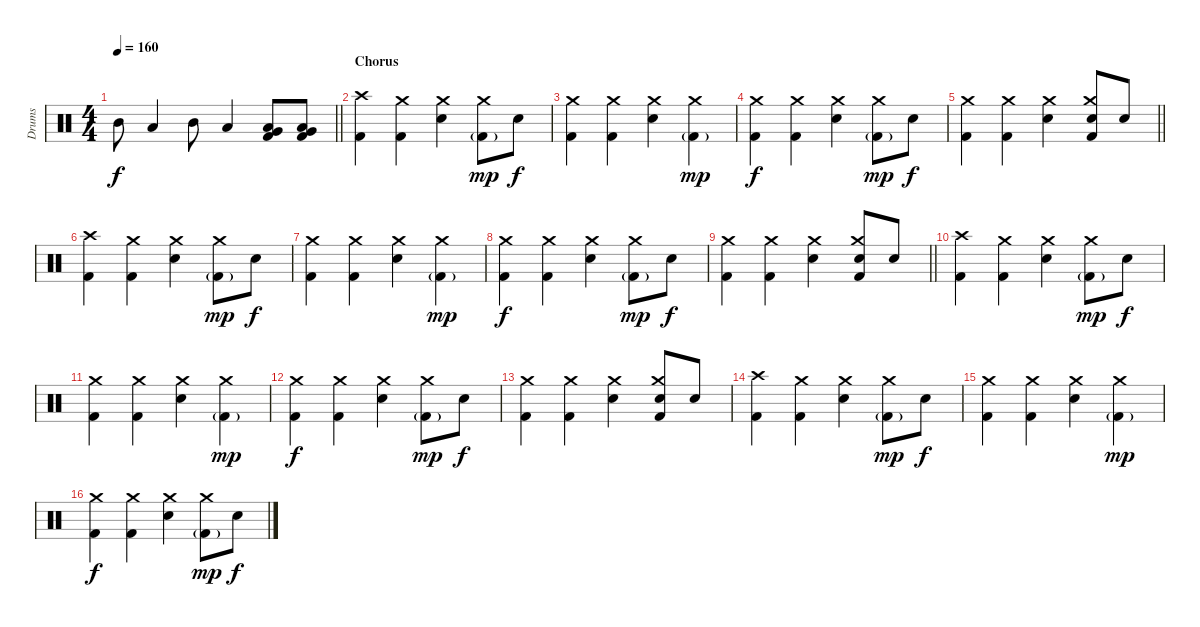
\track ("Drums" "Drums") {instrument percussion}
\staff {score}
\articulation defaults
\ts (4 4)
\tempo 160
\clef neutral
\barLineRight lightlight
\ks c "Mid Tom (hit)".8{dy f} "Low Tom (hit)".4 "Mid Tom (hit)".8 "Low Tom (hit)".4
("Very Low Tom (hit)" "Low Floor Tom (hit)" "Kick (hit) 2").8 ("Very Low Tom (hit)" "Low Floor Tom (hit)" "Kick (hit) 2").8 |
\section ("" "Chorus")
("Crash high (hit)" "Kick (hit) 2").4 ("Crash medium (hit)" "Kick (hit) 2").4 ("Crash medium (hit)" "Electric Snare (hit)").4 ("Crash medium (hit)" "Kick (hit) 2"{g}).8{dy mp} "Electric Snare (hit)".8{dy f} |
("Crash medium (hit)" "Kick (hit) 2").4 ("Crash medium (hit)" "Kick (hit) 2").4 ("Crash medium (hit)" "Electric Snare (hit)").4 ("Crash medium (hit)" "Kick (hit) 2"{g}).4{dy mp} |
("Crash medium (hit)" "Kick (hit) 2").4{dy f} ("Crash medium (hit)" "Kick (hit) 2").4 ("Crash medium (hit)" "Electric Snare (hit)").4 ("Crash medium (hit)" "Kick (hit) 2"{g}).8{dy mp} "Electric Snare (hit)".8{dy f} |
\barLineRight lightlight
("Crash medium (hit)" "Kick (hit) 2").4 ("Crash medium (hit)" "Kick (hit) 2").4 ("Crash medium (hit)" "Electric Snare (hit)").4 ("Crash medium (hit)" "Electric Snare (hit)" "Kick (hit) 2").8 "Electric Snare (hit)".8 |
("Crash high (hit)" "Kick (hit) 2").4 ("Crash medium (hit)" "Kick (hit) 2").4 ("Crash medium (hit)" "Electric Snare (hit)").4 ("Crash medium (hit)" "Kick (hit) 2"{g}).8{dy mp} "Electric Snare (hit)".8{dy f} |
("Crash medium (hit)" "Kick (hit) 2").4 ("Crash medium (hit)" "Kick (hit) 2").4 ("Crash medium (hit)" "Electric Snare (hit)").4 ("Crash medium (hit)" "Kick (hit) 2"{g}).4{dy mp} |
("Crash medium (hit)" "Kick (hit) 2").4{dy f} ("Crash medium (hit)" "Kick (hit) 2").4 ("Crash medium (hit)" "Electric Snare (hit)").4 ("Crash medium (hit)" "Kick (hit) 2"{g}).8{dy mp} "Electric Snare (hit)".8{dy f} |
\barLineRight lightlight
("Crash medium (hit)" "Kick (hit) 2").4 ("Crash medium (hit)" "Kick (hit) 2").4 ("Crash medium (hit)" "Electric Snare (hit)").4 ("Crash medium (hit)" "Electric Snare (hit)" "Kick (hit) 2").8 "Electric Snare (hit)".8 |
("Crash high (hit)" "Kick (hit) 2").4 ("Crash medium (hit)" "Kick (hit) 2").4 ("Crash medium (hit)" "Electric Snare (hit)").4 ("Crash medium (hit)" "Kick (hit) 2"{g}).8{dy mp} "Electric Snare (hit)".8{dy f} |
("Crash medium (hit)" "Kick (hit) 2").4 ("Crash medium (hit)" "Kick (hit) 2").4 ("Crash medium (hit)" "Electric Snare (hit)").4 ("Crash medium (hit)" "Kick (hit) 2"{g}).4{dy mp} |
("Crash medium (hit)" "Kick (hit) 2").4{dy f} ("Crash medium (hit)" "Kick (hit) 2").4 ("Crash medium (hit)" "Electric Snare (hit)").4 ("Crash medium (hit)" "Kick (hit) 2"{g}).8{dy mp} "Electric Snare (hit)".8{dy f} |
("Crash medium (hit)" "Kick (hit) 2").4 ("Crash medium (hit)" "Kick (hit) 2").4 ("Crash medium (hit)" "Electric Snare (hit)").4 ("Crash medium (hit)" "Electric Snare (hit)" "Kick (hit) 2").8 "Electric Snare (hit)".8 |
("Crash high (hit)" "Kick (hit) 2").4 ("Crash medium (hit)" "Kick (hit) 2").4 ("Crash medium (hit)" "Electric Snare (hit)").4 ("Crash medium (hit)" "Kick (hit) 2"{g}).8{dy mp} "Electric Snare (hit)".8{dy f} |
("Crash medium (hit)" "Kick (hit) 2").4 ("Crash medium (hit)" "Kick (hit) 2").4 ("Crash medium (hit)" "Electric Snare (hit)").4 ("Crash medium (hit)" "Kick (hit) 2"{g}).4{dy mp} |
("Crash medium (hit)" "Kick (hit) 2").4{dy f} ("Crash medium (hit)" "Kick (hit) 2").4 ("Crash medium (hit)" "Electric Snare (hit)").4 ("Crash medium (hit)" "Kick (hit) 2"{g}).8{dy mp} "Electric Snare (hit)".8{dy f}
